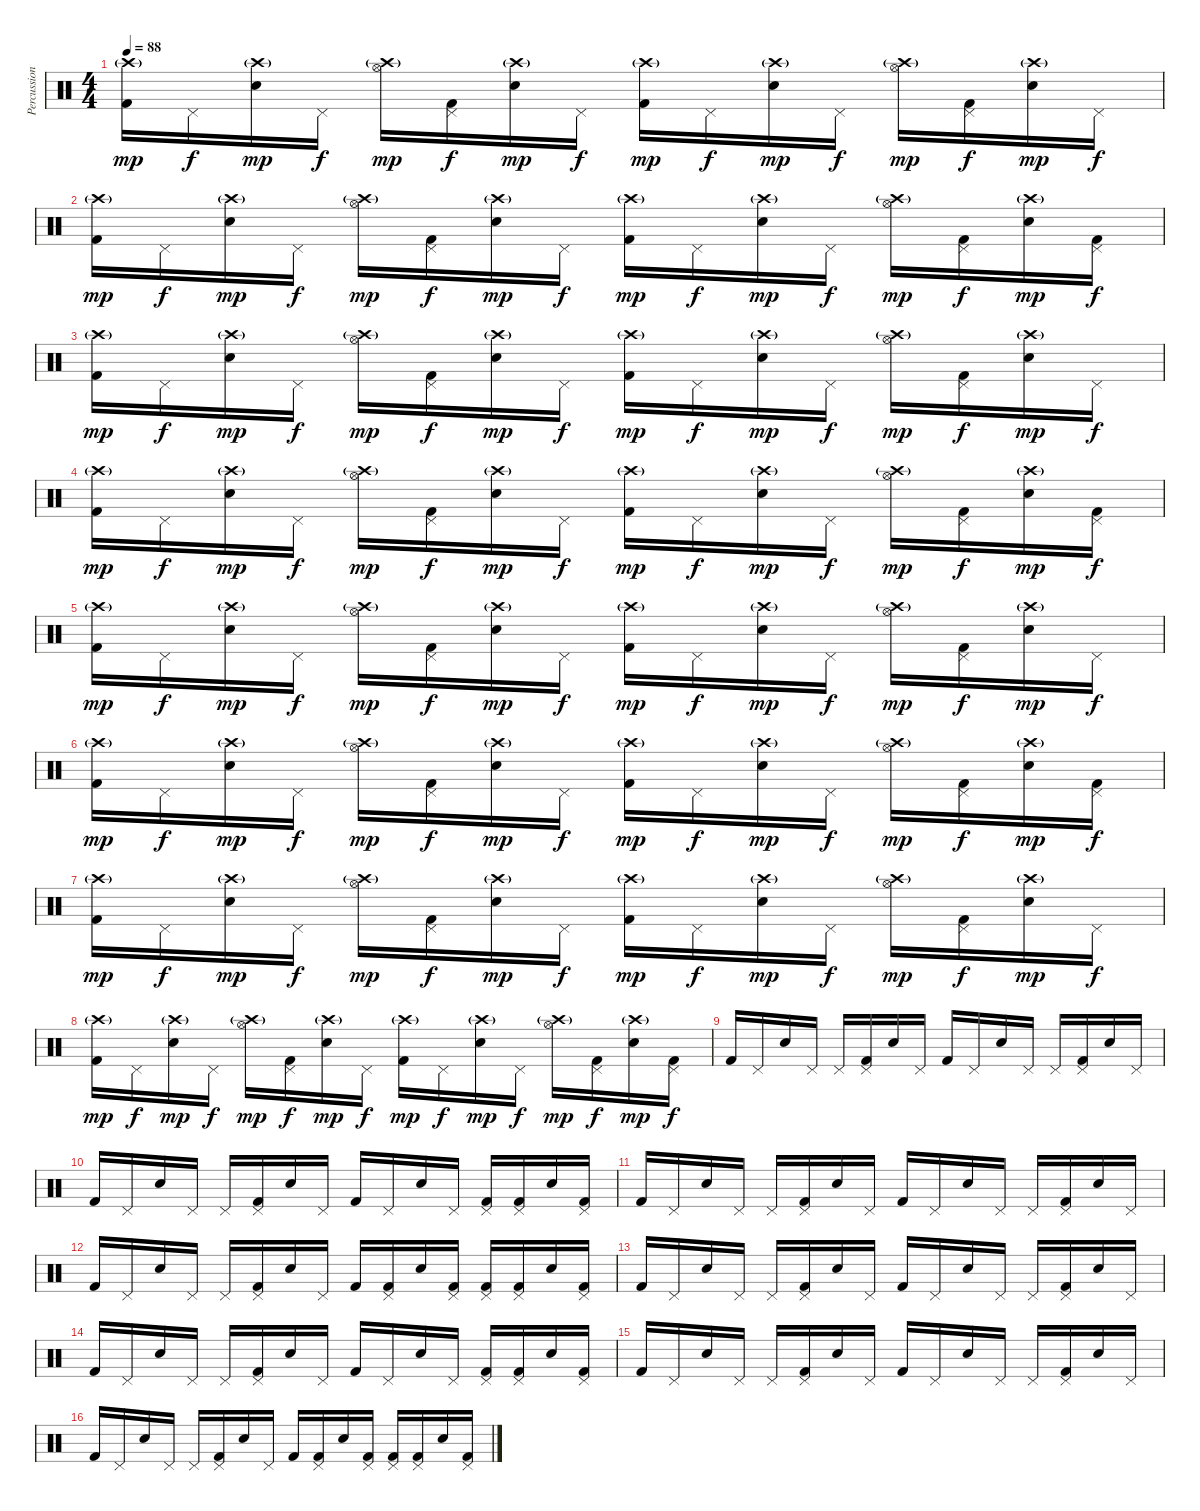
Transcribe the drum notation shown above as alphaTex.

\track ("Percussion" "Percussion") {instrument percussion}
\staff {score}
\articulation defaults
\ts (4 4)
\tempo 88
\clef neutral
\ks c
("Crash high (hit)"{g} "Kick (hit) 2").16{dy mp} "Pedal Hi-Hat (hit)".16{dy f} ("Crash high (hit)"{g} "Snare (hit) 2").16{dy mp} "Pedal Hi-Hat (hit)".16{dy f} ("Crash high (hit)"{g} "Hi-Hat (open)").16{dy mp} ("Pedal Hi-Hat (hit)" "Kick (hit) 2").16{dy f} ("Crash high (hit)"{g} "Snare (hit) 2").16{dy mp} "Pedal Hi-Hat (hit)".16{dy f} ("Crash high (hit)"{g} "Kick (hit) 2").16{dy mp} "Pedal Hi-Hat (hit)".16{dy f} ("Crash high (hit)"{g} "Snare (hit) 2").16{dy mp} "Pedal Hi-Hat (hit)".16{dy f} ("Crash high (hit)"{g} "Hi-Hat (open)").16{dy mp} ("Pedal Hi-Hat (hit)" "Kick (hit) 2").16{dy f} ("Crash high (hit)"{g} "Snare (hit) 2").16{dy mp} "Pedal Hi-Hat (hit)".16{dy f} |
("Crash high (hit)"{g} "Kick (hit) 2").16{dy mp} "Pedal Hi-Hat (hit)".16{dy f} ("Crash high (hit)"{g} "Snare (hit) 2").16{dy mp} "Pedal Hi-Hat (hit)".16{dy f} ("Crash high (hit)"{g} "Hi-Hat (open)").16{dy mp} ("Pedal Hi-Hat (hit)" "Kick (hit) 2").16{dy f} ("Crash high (hit)"{g} "Snare (hit) 2").16{dy mp} "Pedal Hi-Hat (hit)".16{dy f} ("Crash high (hit)"{g} "Kick (hit) 2").16{dy mp} "Pedal Hi-Hat (hit)".16{dy f} ("Crash high (hit)"{g} "Snare (hit) 2").16{dy mp} "Pedal Hi-Hat (hit)".16{dy f} ("Crash high (hit)"{g} "Hi-Hat (open)").16{dy mp} ("Pedal Hi-Hat (hit)" "Kick (hit) 2").16{dy f} ("Crash high (hit)"{g} "Snare (hit) 2").16{dy mp} ("Pedal Hi-Hat (hit)" "Kick (hit) 2").16{dy f} |
("Crash high (hit)"{g} "Kick (hit) 2").16{dy mp} "Pedal Hi-Hat (hit)".16{dy f} ("Crash high (hit)"{g} "Snare (hit) 2").16{dy mp} "Pedal Hi-Hat (hit)".16{dy f} ("Crash high (hit)"{g} "Hi-Hat (open)").16{dy mp} ("Pedal Hi-Hat (hit)" "Kick (hit) 2").16{dy f} ("Crash high (hit)"{g} "Snare (hit) 2").16{dy mp} "Pedal Hi-Hat (hit)".16{dy f} ("Crash high (hit)"{g} "Kick (hit) 2").16{dy mp} "Pedal Hi-Hat (hit)".16{dy f} ("Crash high (hit)"{g} "Snare (hit) 2").16{dy mp} "Pedal Hi-Hat (hit)".16{dy f} ("Crash high (hit)"{g} "Hi-Hat (open)").16{dy mp} ("Pedal Hi-Hat (hit)" "Kick (hit) 2").16{dy f} ("Crash high (hit)"{g} "Snare (hit) 2").16{dy mp} "Pedal Hi-Hat (hit)".16{dy f} |
("Crash high (hit)"{g} "Kick (hit) 2").16{dy mp} "Pedal Hi-Hat (hit)".16{dy f} ("Crash high (hit)"{g} "Snare (hit) 2").16{dy mp} "Pedal Hi-Hat (hit)".16{dy f} ("Crash high (hit)"{g} "Hi-Hat (open)").16{dy mp} ("Pedal Hi-Hat (hit)" "Kick (hit) 2").16{dy f} ("Crash high (hit)"{g} "Snare (hit) 2").16{dy mp} "Pedal Hi-Hat (hit)".16{dy f} ("Crash high (hit)"{g} "Kick (hit) 2").16{dy mp} "Pedal Hi-Hat (hit)".16{dy f} ("Crash high (hit)"{g} "Snare (hit) 2").16{dy mp} "Pedal Hi-Hat (hit)".16{dy f} ("Crash high (hit)"{g} "Hi-Hat (open)").16{dy mp} ("Pedal Hi-Hat (hit)" "Kick (hit) 2").16{dy f} ("Crash high (hit)"{g} "Snare (hit) 2").16{dy mp} ("Pedal Hi-Hat (hit)" "Kick (hit) 2").16{dy f} |
("Crash high (hit)"{g} "Kick (hit) 2").16{dy mp} "Pedal Hi-Hat (hit)".16{dy f} ("Crash high (hit)"{g} "Snare (hit) 2").16{dy mp} "Pedal Hi-Hat (hit)".16{dy f} ("Crash high (hit)"{g} "Hi-Hat (open)").16{dy mp} ("Pedal Hi-Hat (hit)" "Kick (hit) 2").16{dy f} ("Crash high (hit)"{g} "Snare (hit) 2").16{dy mp} "Pedal Hi-Hat (hit)".16{dy f} ("Crash high (hit)"{g} "Kick (hit) 2").16{dy mp} "Pedal Hi-Hat (hit)".16{dy f} ("Crash high (hit)"{g} "Snare (hit) 2").16{dy mp} "Pedal Hi-Hat (hit)".16{dy f} ("Crash high (hit)"{g} "Hi-Hat (open)").16{dy mp} ("Pedal Hi-Hat (hit)" "Kick (hit) 2").16{dy f} ("Crash high (hit)"{g} "Snare (hit) 2").16{dy mp} "Pedal Hi-Hat (hit)".16{dy f} |
("Crash high (hit)"{g} "Kick (hit) 2").16{dy mp} "Pedal Hi-Hat (hit)".16{dy f} ("Crash high (hit)"{g} "Snare (hit) 2").16{dy mp} "Pedal Hi-Hat (hit)".16{dy f} ("Crash high (hit)"{g} "Hi-Hat (open)").16{dy mp} ("Pedal Hi-Hat (hit)" "Kick (hit) 2").16{dy f} ("Crash high (hit)"{g} "Snare (hit) 2").16{dy mp} "Pedal Hi-Hat (hit)".16{dy f} ("Crash high (hit)"{g} "Kick (hit) 2").16{dy mp} "Pedal Hi-Hat (hit)".16{dy f} ("Crash high (hit)"{g} "Snare (hit) 2").16{dy mp} "Pedal Hi-Hat (hit)".16{dy f} ("Crash high (hit)"{g} "Hi-Hat (open)").16{dy mp} ("Pedal Hi-Hat (hit)" "Kick (hit) 2").16{dy f} ("Crash high (hit)"{g} "Snare (hit) 2").16{dy mp} ("Pedal Hi-Hat (hit)" "Kick (hit) 2").16{dy f} |
("Crash high (hit)"{g} "Kick (hit) 2").16{dy mp} "Pedal Hi-Hat (hit)".16{dy f} ("Crash high (hit)"{g} "Snare (hit) 2").16{dy mp} "Pedal Hi-Hat (hit)".16{dy f} ("Crash high (hit)"{g} "Hi-Hat (open)").16{dy mp} ("Pedal Hi-Hat (hit)" "Kick (hit) 2").16{dy f} ("Crash high (hit)"{g} "Snare (hit) 2").16{dy mp} "Pedal Hi-Hat (hit)".16{dy f} ("Crash high (hit)"{g} "Kick (hit) 2").16{dy mp} "Pedal Hi-Hat (hit)".16{dy f} ("Crash high (hit)"{g} "Snare (hit) 2").16{dy mp} "Pedal Hi-Hat (hit)".16{dy f} ("Crash high (hit)"{g} "Hi-Hat (open)").16{dy mp} ("Pedal Hi-Hat (hit)" "Kick (hit) 2").16{dy f} ("Crash high (hit)"{g} "Snare (hit) 2").16{dy mp} "Pedal Hi-Hat (hit)".16{dy f} |
("Crash high (hit)"{g} "Kick (hit) 2").16{dy mp} "Pedal Hi-Hat (hit)".16{dy f} ("Crash high (hit)"{g} "Snare (hit) 2").16{dy mp} "Pedal Hi-Hat (hit)".16{dy f} ("Crash high (hit)"{g} "Hi-Hat (open)").16{dy mp} ("Pedal Hi-Hat (hit)" "Kick (hit) 2").16{dy f} ("Crash high (hit)"{g} "Snare (hit) 2").16{dy mp} "Pedal Hi-Hat (hit)".16{dy f} ("Crash high (hit)"{g} "Kick (hit) 2").16{dy mp} "Pedal Hi-Hat (hit)".16{dy f} ("Crash high (hit)"{g} "Snare (hit) 2").16{dy mp} "Pedal Hi-Hat (hit)".16{dy f} ("Crash high (hit)"{g} "Hi-Hat (open)").16{dy mp} ("Pedal Hi-Hat (hit)" "Kick (hit) 2").16{dy f} ("Crash high (hit)"{g} "Snare (hit) 2").16{dy mp} ("Pedal Hi-Hat (hit)" "Kick (hit) 2").16{dy f} |
"Kick (hit) 2".16 "Pedal Hi-Hat (hit)".16 "Snare (hit) 2".16 "Pedal Hi-Hat (hit)".16 "Pedal Hi-Hat (hit)".16 ("Pedal Hi-Hat (hit)" "Kick (hit) 2").16 "Snare (hit) 2".16 "Pedal Hi-Hat (hit)".16 "Kick (hit) 2".16 "Pedal Hi-Hat (hit)".16 "Snare (hit) 2".16 "Pedal Hi-Hat (hit)".16 "Pedal Hi-Hat (hit)".16 ("Pedal Hi-Hat (hit)" "Kick (hit) 2").16 "Snare (hit) 2".16 "Pedal Hi-Hat (hit)".16 |
"Kick (hit) 2".16 "Pedal Hi-Hat (hit)".16 "Snare (hit) 2".16 "Pedal Hi-Hat (hit)".16 "Pedal Hi-Hat (hit)".16 ("Pedal Hi-Hat (hit)" "Kick (hit) 2").16 "Snare (hit) 2".16 "Pedal Hi-Hat (hit)".16 "Kick (hit) 2".16 "Pedal Hi-Hat (hit)".16 "Snare (hit) 2".16 "Pedal Hi-Hat (hit)".16 ("Pedal Hi-Hat (hit)" "Kick (hit) 2").16 ("Pedal Hi-Hat (hit)" "Kick (hit) 2").16 "Snare (hit) 2".16 ("Pedal Hi-Hat (hit)" "Kick (hit) 2").16 |
"Kick (hit) 2".16 "Pedal Hi-Hat (hit)".16 "Snare (hit) 2".16 "Pedal Hi-Hat (hit)".16 "Pedal Hi-Hat (hit)".16 ("Pedal Hi-Hat (hit)" "Kick (hit) 2").16 "Snare (hit) 2".16 "Pedal Hi-Hat (hit)".16 "Kick (hit) 2".16 "Pedal Hi-Hat (hit)".16 "Snare (hit) 2".16 "Pedal Hi-Hat (hit)".16 "Pedal Hi-Hat (hit)".16 ("Pedal Hi-Hat (hit)" "Kick (hit) 2").16 "Snare (hit) 2".16 "Pedal Hi-Hat (hit)".16 |
"Kick (hit) 2".16 "Pedal Hi-Hat (hit)".16 "Snare (hit) 2".16 "Pedal Hi-Hat (hit)".16 "Pedal Hi-Hat (hit)".16 ("Pedal Hi-Hat (hit)" "Kick (hit) 2").16 "Snare (hit) 2".16 "Pedal Hi-Hat (hit)".16 "Kick (hit) 2".16 ("Pedal Hi-Hat (hit)" "Kick (hit) 2").16 "Snare (hit) 2".16 ("Pedal Hi-Hat (hit)" "Kick (hit) 2").16 ("Pedal Hi-Hat (hit)" "Kick (hit) 2").16 ("Pedal Hi-Hat (hit)" "Kick (hit) 2").16 "Snare (hit) 2".16 ("Pedal Hi-Hat (hit)" "Kick (hit) 2").16 |
"Kick (hit) 2".16 "Pedal Hi-Hat (hit)".16 "Snare (hit) 2".16 "Pedal Hi-Hat (hit)".16 "Pedal Hi-Hat (hit)".16 ("Pedal Hi-Hat (hit)" "Kick (hit) 2").16 "Snare (hit) 2".16 "Pedal Hi-Hat (hit)".16 "Kick (hit) 2".16 "Pedal Hi-Hat (hit)".16 "Snare (hit) 2".16 "Pedal Hi-Hat (hit)".16 "Pedal Hi-Hat (hit)".16 ("Pedal Hi-Hat (hit)" "Kick (hit) 2").16 "Snare (hit) 2".16 "Pedal Hi-Hat (hit)".16 |
"Kick (hit) 2".16 "Pedal Hi-Hat (hit)".16 "Snare (hit) 2".16 "Pedal Hi-Hat (hit)".16 "Pedal Hi-Hat (hit)".16 ("Pedal Hi-Hat (hit)" "Kick (hit) 2").16 "Snare (hit) 2".16 "Pedal Hi-Hat (hit)".16 "Kick (hit) 2".16 "Pedal Hi-Hat (hit)".16 "Snare (hit) 2".16 "Pedal Hi-Hat (hit)".16 ("Pedal Hi-Hat (hit)" "Kick (hit) 2").16 ("Pedal Hi-Hat (hit)" "Kick (hit) 2").16 "Snare (hit) 2".16 ("Pedal Hi-Hat (hit)" "Kick (hit) 2").16 |
"Kick (hit) 2".16 "Pedal Hi-Hat (hit)".16 "Snare (hit) 2".16 "Pedal Hi-Hat (hit)".16 "Pedal Hi-Hat (hit)".16 ("Pedal Hi-Hat (hit)" "Kick (hit) 2").16 "Snare (hit) 2".16 "Pedal Hi-Hat (hit)".16 "Kick (hit) 2".16 "Pedal Hi-Hat (hit)".16 "Snare (hit) 2".16 "Pedal Hi-Hat (hit)".16 "Pedal Hi-Hat (hit)".16 ("Pedal Hi-Hat (hit)" "Kick (hit) 2").16 "Snare (hit) 2".16 "Pedal Hi-Hat (hit)".16 |
"Kick (hit) 2".16 "Pedal Hi-Hat (hit)".16 "Snare (hit) 2".16 "Pedal Hi-Hat (hit)".16 "Pedal Hi-Hat (hit)".16 ("Pedal Hi-Hat (hit)" "Kick (hit) 2").16 "Snare (hit) 2".16 "Pedal Hi-Hat (hit)".16 "Kick (hit) 2".16 ("Pedal Hi-Hat (hit)" "Kick (hit) 2").16 "Snare (hit) 2".16 ("Pedal Hi-Hat (hit)" "Kick (hit) 2").16 ("Pedal Hi-Hat (hit)" "Kick (hit) 2").16 ("Pedal Hi-Hat (hit)" "Kick (hit) 2").16 "Snare (hit) 2".16 ("Pedal Hi-Hat (hit)" "Kick (hit) 2").16
